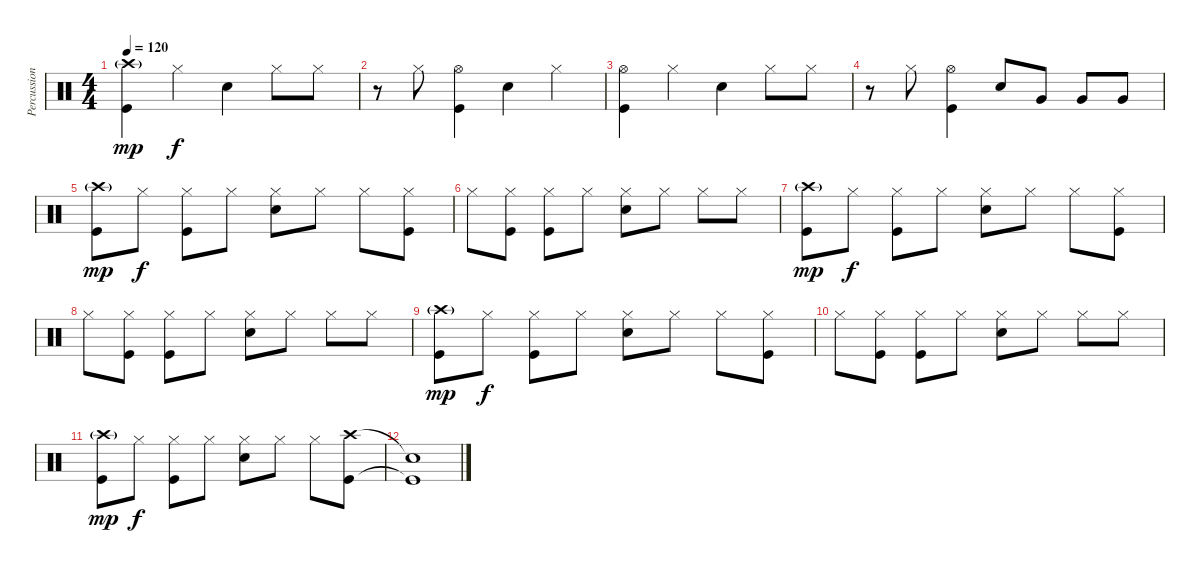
\track ("Percussion" "Percussion") {instrument percussion}
\staff {score}
\articulation defaults
\ts (4 4)
\tempo 120
\clef neutral
\ks c
("Kick (hit)" "Crash high (hit)"{g}).4{dy mp} "Hi-Hat (closed)".4{dy f} "Snare (hit) 2".4 "Hi-Hat (closed)".8 "Hi-Hat (closed)".8 |
r.8 "Hi-Hat (closed)".8 ("Kick (hit)" "Hi-Hat (open)").4 "Snare (hit) 2".4 "Hi-Hat (closed)".4 |
("Kick (hit)" "Hi-Hat (open)").4 "Hi-Hat (closed)".4 "Snare (hit) 2".4 "Hi-Hat (closed)".8 "Hi-Hat (closed)".8 |
r.8 "Hi-Hat (closed)".8 ("Kick (hit)" "Hi-Hat (open)").4 "Snare (hit) 2".8 "Very Low Tom (hit)".8 "Very Low Tom (hit)".8 "Very Low Tom (hit)".8 |
("Kick (hit)" "Crash high (hit)"{g}).8{dy mp} "Hi-Hat (closed)".8{dy f} ("Kick (hit)" "Hi-Hat (closed)").8 "Hi-Hat (closed)".8 ("Snare (hit) 2" "Hi-Hat (closed)").8 "Hi-Hat (closed)".8 "Hi-Hat (closed)".8 ("Kick (hit)" "Hi-Hat (closed)").8 |
"Hi-Hat (closed)".8 ("Kick (hit)" "Hi-Hat (closed)").8 ("Kick (hit)" "Hi-Hat (closed)").8 "Hi-Hat (closed)".8 ("Snare (hit) 2" "Hi-Hat (closed)").8 "Hi-Hat (closed)".8 "Hi-Hat (closed)".8 "Hi-Hat (closed)".8 |
("Kick (hit)" "Crash high (hit)"{g}).8{dy mp} "Hi-Hat (closed)".8{dy f} ("Kick (hit)" "Hi-Hat (closed)").8 "Hi-Hat (closed)".8 ("Snare (hit) 2" "Hi-Hat (closed)").8 "Hi-Hat (closed)".8 "Hi-Hat (closed)".8 ("Kick (hit)" "Hi-Hat (closed)").8 |
"Hi-Hat (closed)".8 ("Kick (hit)" "Hi-Hat (closed)").8 ("Kick (hit)" "Hi-Hat (closed)").8 "Hi-Hat (closed)".8 ("Snare (hit) 2" "Hi-Hat (closed)").8 "Hi-Hat (closed)".8 "Hi-Hat (closed)".8 "Hi-Hat (closed)".8 |
("Kick (hit)" "Crash high (hit)"{g}).8{dy mp} "Hi-Hat (closed)".8{dy f} ("Kick (hit)" "Hi-Hat (closed)").8 "Hi-Hat (closed)".8 ("Snare (hit) 2" "Hi-Hat (closed)").8 "Hi-Hat (closed)".8 "Hi-Hat (closed)".8 ("Kick (hit)" "Hi-Hat (closed)").8 |
"Hi-Hat (closed)".8 ("Kick (hit)" "Hi-Hat (closed)").8 ("Kick (hit)" "Hi-Hat (closed)").8 "Hi-Hat (closed)".8 ("Snare (hit) 2" "Hi-Hat (closed)").8 "Hi-Hat (closed)".8 "Hi-Hat (closed)".8 "Hi-Hat (closed)".8 |
("Kick (hit)" "Crash high (hit)"{g}).8{dy mp} "Hi-Hat (closed)".8{dy f} ("Kick (hit)" "Hi-Hat (closed)").8 "Hi-Hat (closed)".8 ("Snare (hit) 2" "Hi-Hat (closed)").8 "Hi-Hat (closed)".8 "Hi-Hat (closed)".8 ("Kick (hit)" "Crash high (hit)").8 |
("Kick (hit)"{t} "Snare (hit)"{t}).1
